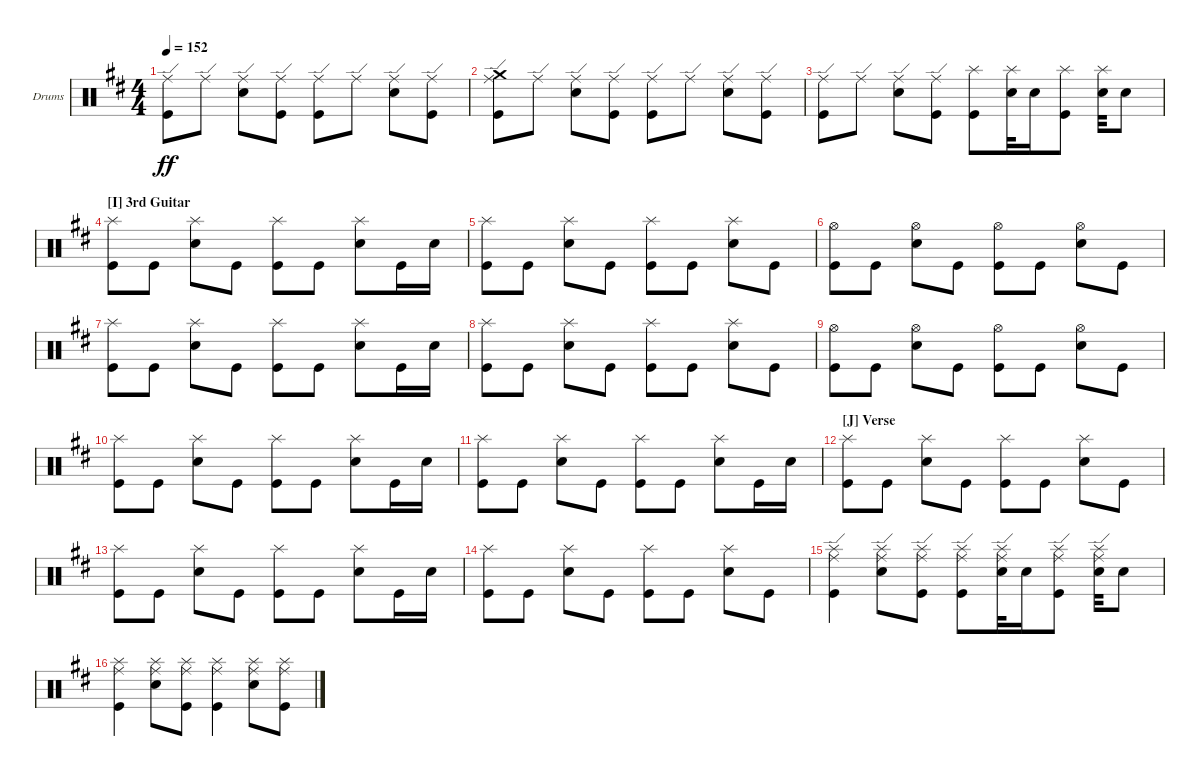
\defaultSystemsLayout 4
\bracketExtendMode groupsimilarinstruments
\firstSystemTrackNameOrientation horizontal
\otherSystemsTrackNameOrientation horizontal
\track ("Drumkit" "Drums") {instrument percussion}
\staff {score}
\articulation defaults
\ts (4 4)
\tempo 152
\clef neutral
\ks d
("Kick (hit)" "Ride (edge)").8{dy ff} "Ride (edge)".8 ("Snare (hit) 2" "Ride (edge)").8 ("Kick (hit)" "Ride (edge)").8 ("Kick (hit)" "Ride (edge)").8 "Ride (edge)".8 ("Snare (hit) 2" "Ride (edge)").8 ("Kick (hit)" "Ride (edge)").8 |
("Kick (hit)" "Ride (edge)" "Crash medium (hit)").8 "Ride (edge)".8 ("Snare (hit) 2" "Ride (edge)").8 ("Kick (hit)" "Ride (edge)").8 ("Kick (hit)" "Ride (edge)").8 "Ride (edge)".8 ("Snare (hit) 2" "Ride (edge)").8 ("Kick (hit)" "Ride (edge)").8 |
("Kick (hit)" "Ride (edge)").8 "Ride (edge)".8 ("Snare (hit) 2" "Ride (edge)").8 ("Kick (hit)" "Ride (edge)").8 ("Kick (hit)" "Splash (hit)").8 ("Snare (hit) 2" "Splash (hit)").32 "Snare (hit) 2".16 ("Kick (hit)" "Splash (hit)").8 ("Snare (hit) 2" "Splash (hit)").32 "Snare (hit) 2".8 |
\section ("I" "3rd Guitar")
("Kick (hit)" "Splash (hit)").8 "Kick (hit)".8 ("Snare (hit) 2" "Splash (hit)").8 "Kick (hit)".8 ("Kick (hit)" "Splash (hit)").8 "Kick (hit)".8 ("Snare (hit) 2" "Splash (hit)").8 "Kick (hit)".16 "Snare (hit) 2".16 |
("Kick (hit)" "Splash (hit)").8 "Kick (hit)".8 ("Snare (hit) 2" "Splash (hit)").8 "Kick (hit)".8 ("Kick (hit)" "Splash (hit)").8 "Kick (hit)".8 ("Snare (hit) 2" "Splash (hit)").8 "Kick (hit)".8 |
("Kick (hit)" "Hi-Hat (open)").8 "Kick (hit)".8 ("Snare (hit) 2" "Hi-Hat (open)").8 "Kick (hit)".8 ("Kick (hit)" "Hi-Hat (open)").8 "Kick (hit)".8 ("Snare (hit) 2" "Hi-Hat (open)").8 "Kick (hit)".8 |
("Kick (hit)" "Splash (hit)").8 "Kick (hit)".8 ("Snare (hit) 2" "Splash (hit)").8 "Kick (hit)".8 ("Kick (hit)" "Splash (hit)").8 "Kick (hit)".8 ("Snare (hit) 2" "Splash (hit)").8 "Kick (hit)".16 "Snare (hit) 2".16 |
("Kick (hit)" "Splash (hit)").8 "Kick (hit)".8 ("Snare (hit) 2" "Splash (hit)").8 "Kick (hit)".8 ("Kick (hit)" "Splash (hit)").8 "Kick (hit)".8 ("Snare (hit) 2" "Splash (hit)").8 "Kick (hit)".8 |
("Kick (hit)" "Hi-Hat (open)").8 "Kick (hit)".8 ("Snare (hit) 2" "Hi-Hat (open)").8 "Kick (hit)".8 ("Kick (hit)" "Hi-Hat (open)").8 "Kick (hit)".8 ("Snare (hit) 2" "Hi-Hat (open)").8 "Kick (hit)".8 |
("Kick (hit)" "Splash (hit)").8 "Kick (hit)".8 ("Snare (hit) 2" "Splash (hit)").8 "Kick (hit)".8 ("Kick (hit)" "Splash (hit)").8 "Kick (hit)".8 ("Snare (hit) 2" "Splash (hit)").8 "Kick (hit)".16 "Snare (hit) 2".16 |
("Kick (hit)" "Splash (hit)").8 "Kick (hit)".8 ("Snare (hit) 2" "Splash (hit)").8 "Kick (hit)".8 ("Kick (hit)" "Splash (hit)").8 "Kick (hit)".8 ("Snare (hit) 2" "Splash (hit)").8 "Kick (hit)".16 "Snare (hit) 2".16 |
\section ("J" "Verse")
("Kick (hit)" "Splash (hit)").8 "Kick (hit)".8 ("Snare (hit) 2" "Splash (hit)").8 "Kick (hit)".8 ("Kick (hit)" "Splash (hit)").8 "Kick (hit)".8 ("Snare (hit) 2" "Splash (hit)").8 "Kick (hit)".8 |
("Kick (hit)" "Splash (hit)").8 "Kick (hit)".8 ("Snare (hit) 2" "Splash (hit)").8 "Kick (hit)".8 ("Kick (hit)" "Splash (hit)").8 "Kick (hit)".8 ("Snare (hit) 2" "Splash (hit)").8 "Kick (hit)".16 "Snare (hit) 2".16 |
("Kick (hit)" "Splash (hit)").8 "Kick (hit)".8 ("Snare (hit) 2" "Splash (hit)").8 "Kick (hit)".8 ("Kick (hit)" "Splash (hit)").8 "Kick (hit)".8 ("Snare (hit) 2" "Splash (hit)").8 "Kick (hit)".8 |
("Kick (hit)" "Splash (hit)" "Ride (edge)").4 ("Snare (hit) 2" "Splash (hit)" "Ride (edge)").8 ("Kick (hit)" "Splash (hit)" "Ride (edge)").8 ("Kick (hit)" "Splash (hit)" "Ride (edge)").8 ("Snare (hit) 2" "Splash (hit)" "Ride (edge)").32 "Snare (hit) 2".16 ("Kick (hit)" "Splash (hit)" "Ride (edge)").8 ("Snare (hit) 2" "Splash (hit)" "Ride (edge)").32 "Snare (hit) 2".8 |
("Kick (hit)" "Splash (hit)" "Ride (middle)").4 ("Snare (hit) 2" "Splash (hit)" "Ride (middle)").8 ("Kick (hit)" "Splash (hit)" "Ride (middle)").8 ("Kick (hit)" "Splash (hit)" "Ride (middle)").4 ("Snare (hit) 2" "Splash (hit)" "Ride (middle)").8 ("Kick (hit)" "Splash (hit)" "Ride (middle)").8
